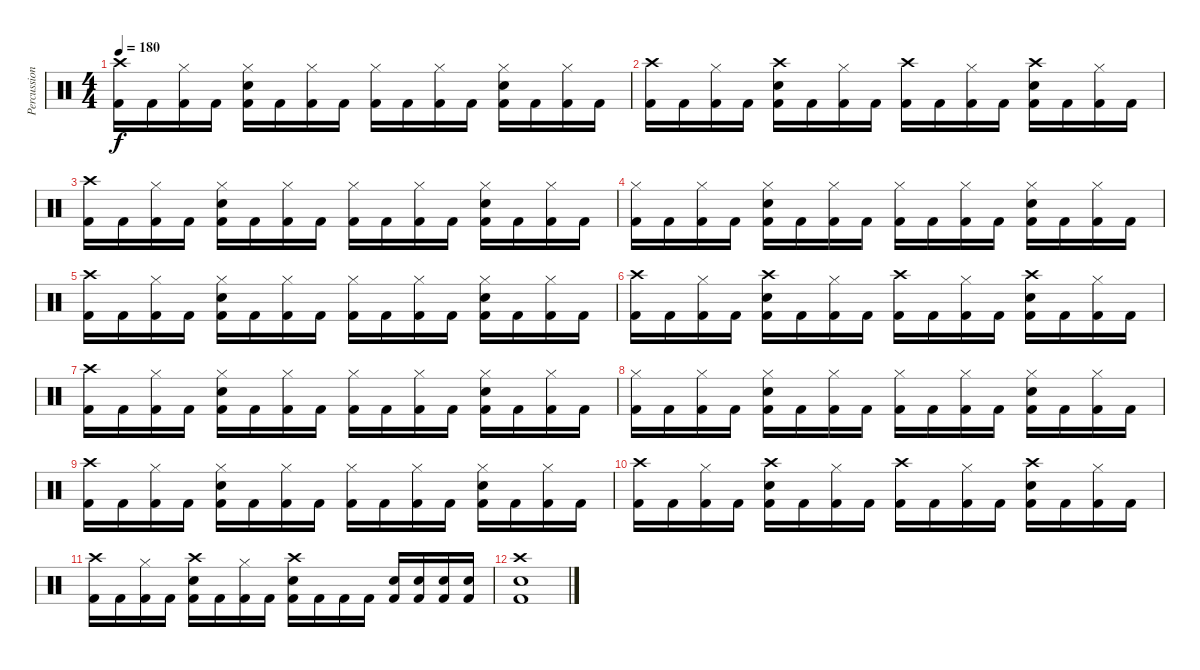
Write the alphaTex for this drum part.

\track ("Percussion" "Percussion") {instrument percussion}
\staff {score}
\articulation defaults
\ts (4 4)
\tempo 180
\clef neutral
\ks c
("Crash high (hit)" "Kick (hit) 2").16{dy f} "Kick (hit) 2".16 ("Hi-Hat (closed)" "Kick (hit) 2").16 "Kick (hit) 2".16 ("Hi-Hat (closed)" "Snare (hit) 2" "Kick (hit) 2").16 "Kick (hit) 2".16 ("Hi-Hat (closed)" "Kick (hit) 2").16 "Kick (hit) 2".16 ("Hi-Hat (closed)" "Kick (hit) 2").16 "Kick (hit) 2".16 ("Hi-Hat (closed)" "Kick (hit) 2").16 "Kick (hit) 2".16 ("Hi-Hat (closed)" "Snare (hit) 2" "Kick (hit) 2").16 "Kick (hit) 2".16 ("Hi-Hat (closed)" "Kick (hit) 2").16 "Kick (hit) 2".16 |
("Crash high (hit)" "Kick (hit) 2").16 "Kick (hit) 2".16 ("Hi-Hat (closed)" "Kick (hit) 2").16 "Kick (hit) 2".16 ("Crash high (hit)" "Snare (hit) 2" "Kick (hit) 2").16 "Kick (hit) 2".16 ("Hi-Hat (closed)" "Kick (hit) 2").16 "Kick (hit) 2".16 ("Crash high (hit)" "Kick (hit) 2").16 "Kick (hit) 2".16 ("Hi-Hat (closed)" "Kick (hit) 2").16 "Kick (hit) 2".16 ("Crash high (hit)" "Snare (hit) 2" "Kick (hit) 2").16 "Kick (hit) 2".16 ("Hi-Hat (closed)" "Kick (hit) 2").16 "Kick (hit) 2".16 |
("Crash high (hit)" "Kick (hit) 2").16 "Kick (hit) 2".16 ("Hi-Hat (closed)" "Kick (hit) 2").16 "Kick (hit) 2".16 ("Hi-Hat (closed)" "Snare (hit) 2" "Kick (hit) 2").16 "Kick (hit) 2".16 ("Hi-Hat (closed)" "Kick (hit) 2").16 "Kick (hit) 2".16 ("Hi-Hat (closed)" "Kick (hit) 2").16 "Kick (hit) 2".16 ("Hi-Hat (closed)" "Kick (hit) 2").16 "Kick (hit) 2".16 ("Hi-Hat (closed)" "Snare (hit) 2" "Kick (hit) 2").16 "Kick (hit) 2".16 ("Hi-Hat (closed)" "Kick (hit) 2").16 "Kick (hit) 2".16 |
("Hi-Hat (closed)" "Kick (hit) 2").16 "Kick (hit) 2".16 ("Hi-Hat (closed)" "Kick (hit) 2").16 "Kick (hit) 2".16 ("Hi-Hat (closed)" "Snare (hit) 2" "Kick (hit) 2").16 "Kick (hit) 2".16 ("Hi-Hat (closed)" "Kick (hit) 2").16 "Kick (hit) 2".16 ("Hi-Hat (closed)" "Kick (hit) 2").16 "Kick (hit) 2".16 ("Hi-Hat (closed)" "Kick (hit) 2").16 "Kick (hit) 2".16 ("Hi-Hat (closed)" "Snare (hit) 2" "Kick (hit) 2").16 "Kick (hit) 2".16 ("Hi-Hat (closed)" "Kick (hit) 2").16 "Kick (hit) 2".16 |
("Crash high (hit)" "Kick (hit) 2").16 "Kick (hit) 2".16 ("Hi-Hat (closed)" "Kick (hit) 2").16 "Kick (hit) 2".16 ("Hi-Hat (closed)" "Snare (hit) 2" "Kick (hit) 2").16 "Kick (hit) 2".16 ("Hi-Hat (closed)" "Kick (hit) 2").16 "Kick (hit) 2".16 ("Hi-Hat (closed)" "Kick (hit) 2").16 "Kick (hit) 2".16 ("Hi-Hat (closed)" "Kick (hit) 2").16 "Kick (hit) 2".16 ("Hi-Hat (closed)" "Snare (hit) 2" "Kick (hit) 2").16 "Kick (hit) 2".16 ("Hi-Hat (closed)" "Kick (hit) 2").16 "Kick (hit) 2".16 |
("Crash high (hit)" "Kick (hit) 2").16 "Kick (hit) 2".16 ("Hi-Hat (closed)" "Kick (hit) 2").16 "Kick (hit) 2".16 ("Crash high (hit)" "Snare (hit) 2" "Kick (hit) 2").16 "Kick (hit) 2".16 ("Hi-Hat (closed)" "Kick (hit) 2").16 "Kick (hit) 2".16 ("Crash high (hit)" "Kick (hit) 2").16 "Kick (hit) 2".16 ("Hi-Hat (closed)" "Kick (hit) 2").16 "Kick (hit) 2".16 ("Crash high (hit)" "Snare (hit) 2" "Kick (hit) 2").16 "Kick (hit) 2".16 ("Hi-Hat (closed)" "Kick (hit) 2").16 "Kick (hit) 2".16 |
("Crash high (hit)" "Kick (hit) 2").16 "Kick (hit) 2".16 ("Hi-Hat (closed)" "Kick (hit) 2").16 "Kick (hit) 2".16 ("Hi-Hat (closed)" "Snare (hit) 2" "Kick (hit) 2").16 "Kick (hit) 2".16 ("Hi-Hat (closed)" "Kick (hit) 2").16 "Kick (hit) 2".16 ("Hi-Hat (closed)" "Kick (hit) 2").16 "Kick (hit) 2".16 ("Hi-Hat (closed)" "Kick (hit) 2").16 "Kick (hit) 2".16 ("Hi-Hat (closed)" "Snare (hit) 2" "Kick (hit) 2").16 "Kick (hit) 2".16 ("Hi-Hat (closed)" "Kick (hit) 2").16 "Kick (hit) 2".16 |
("Hi-Hat (closed)" "Kick (hit) 2").16 "Kick (hit) 2".16 ("Hi-Hat (closed)" "Kick (hit) 2").16 "Kick (hit) 2".16 ("Hi-Hat (closed)" "Snare (hit) 2" "Kick (hit) 2").16 "Kick (hit) 2".16 ("Hi-Hat (closed)" "Kick (hit) 2").16 "Kick (hit) 2".16 ("Hi-Hat (closed)" "Kick (hit) 2").16 "Kick (hit) 2".16 ("Hi-Hat (closed)" "Kick (hit) 2").16 "Kick (hit) 2".16 ("Hi-Hat (closed)" "Snare (hit) 2" "Kick (hit) 2").16 "Kick (hit) 2".16 ("Hi-Hat (closed)" "Kick (hit) 2").16 "Kick (hit) 2".16 |
("Crash high (hit)" "Kick (hit) 2").16 "Kick (hit) 2".16 ("Hi-Hat (closed)" "Kick (hit) 2").16 "Kick (hit) 2".16 ("Hi-Hat (closed)" "Snare (hit) 2" "Kick (hit) 2").16 "Kick (hit) 2".16 ("Hi-Hat (closed)" "Kick (hit) 2").16 "Kick (hit) 2".16 ("Hi-Hat (closed)" "Kick (hit) 2").16 "Kick (hit) 2".16 ("Hi-Hat (closed)" "Kick (hit) 2").16 "Kick (hit) 2".16 ("Hi-Hat (closed)" "Snare (hit) 2" "Kick (hit) 2").16 "Kick (hit) 2".16 ("Hi-Hat (closed)" "Kick (hit) 2").16 "Kick (hit) 2".16 |
("Crash high (hit)" "Kick (hit) 2").16 "Kick (hit) 2".16 ("Hi-Hat (closed)" "Kick (hit) 2").16 "Kick (hit) 2".16 ("Crash high (hit)" "Snare (hit) 2" "Kick (hit) 2").16 "Kick (hit) 2".16 ("Hi-Hat (closed)" "Kick (hit) 2").16 "Kick (hit) 2".16 ("Crash high (hit)" "Kick (hit) 2").16 "Kick (hit) 2".16 ("Hi-Hat (closed)" "Kick (hit) 2").16 "Kick (hit) 2".16 ("Crash high (hit)" "Snare (hit) 2" "Kick (hit) 2").16 "Kick (hit) 2".16 ("Hi-Hat (closed)" "Kick (hit) 2").16 "Kick (hit) 2".16 |
("Crash high (hit)" "Kick (hit) 2").16 "Kick (hit) 2".16 ("Hi-Hat (closed)" "Kick (hit) 2").16 "Kick (hit) 2".16 ("Crash high (hit)" "Snare (hit) 2" "Kick (hit) 2").16 "Kick (hit) 2".16 ("Hi-Hat (closed)" "Kick (hit) 2").16 "Kick (hit) 2".16 ("Crash high (hit)" "Snare (hit) 2" "Kick (hit) 2").16 "Kick (hit) 2".16 "Kick (hit) 2".16 "Kick (hit) 2".16 ("Snare (hit) 2" "Kick (hit) 2").16 ("Snare (hit) 2" "Kick (hit) 2").16 ("Snare (hit) 2" "Kick (hit) 2").16 ("Snare (hit) 2" "Kick (hit) 2").16 |
("Crash high (hit)" "Snare (hit) 2" "Kick (hit) 2").1
